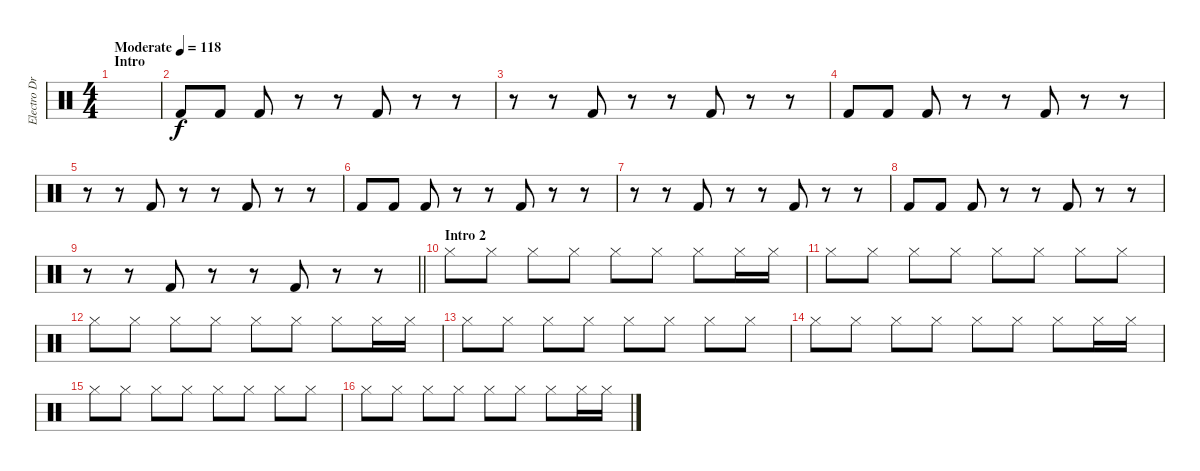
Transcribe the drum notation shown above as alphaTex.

\track ("Electro Drums" "Electro Dr") {instrument percussion}
\staff {score}
\articulation defaults
\ts (4 4)
\section ("" "Intro")
\tempo (118 "Moderate")
\clef neutral
\ks c
|
"Kick (hit) 2".8 "Kick (hit) 2".8 "Kick (hit) 2".8 r.8 r.8 "Kick (hit) 2".8 r.8 r.8 |
r.8 r.8 "Kick (hit) 2".8 r.8 r.8 "Kick (hit) 2".8 r.8 r.8 |
"Kick (hit) 2".8 "Kick (hit) 2".8 "Kick (hit) 2".8 r.8 r.8 "Kick (hit) 2".8 r.8 r.8 |
r.8 r.8 "Kick (hit) 2".8 r.8 r.8 "Kick (hit) 2".8 r.8 r.8 |
"Kick (hit) 2".8 "Kick (hit) 2".8 "Kick (hit) 2".8 r.8 r.8 "Kick (hit) 2".8 r.8 r.8 |
r.8 r.8 "Kick (hit) 2".8 r.8 r.8 "Kick (hit) 2".8 r.8 r.8 |
"Kick (hit) 2".8 "Kick (hit) 2".8 "Kick (hit) 2".8 r.8 r.8 "Kick (hit) 2".8 r.8 r.8 |
\barLineRight lightlight
r.8 r.8 "Kick (hit) 2".8 r.8 r.8 "Kick (hit) 2".8 r.8 r.8 |
\section ("" "Intro 2")
"Hi-Hat (closed)".8{volume 4} "Hi-Hat (closed)".8 "Hi-Hat (closed)".8 "Hi-Hat (closed)".8 "Hi-Hat (closed)".8 "Hi-Hat (closed)".8 "Hi-Hat (closed)".8 "Hi-Hat (closed)".16 "Hi-Hat (closed)".16 |
"Hi-Hat (closed)".8 "Hi-Hat (closed)".8 "Hi-Hat (closed)".8 "Hi-Hat (closed)".8 "Hi-Hat (closed)".8 "Hi-Hat (closed)".8 "Hi-Hat (closed)".8 "Hi-Hat (closed)".8 |
"Hi-Hat (closed)".8 "Hi-Hat (closed)".8 "Hi-Hat (closed)".8 "Hi-Hat (closed)".8 "Hi-Hat (closed)".8 "Hi-Hat (closed)".8 "Hi-Hat (closed)".8 "Hi-Hat (closed)".16 "Hi-Hat (closed)".16 |
"Hi-Hat (closed)".8 "Hi-Hat (closed)".8 "Hi-Hat (closed)".8 "Hi-Hat (closed)".8 "Hi-Hat (closed)".8 "Hi-Hat (closed)".8 "Hi-Hat (closed)".8 "Hi-Hat (closed)".8 |
"Hi-Hat (closed)".8 "Hi-Hat (closed)".8 "Hi-Hat (closed)".8 "Hi-Hat (closed)".8 "Hi-Hat (closed)".8 "Hi-Hat (closed)".8 "Hi-Hat (closed)".8 "Hi-Hat (closed)".16 "Hi-Hat (closed)".16 |
"Hi-Hat (closed)".8 "Hi-Hat (closed)".8 "Hi-Hat (closed)".8 "Hi-Hat (closed)".8 "Hi-Hat (closed)".8 "Hi-Hat (closed)".8 "Hi-Hat (closed)".8 "Hi-Hat (closed)".8 |
"Hi-Hat (closed)".8 "Hi-Hat (closed)".8 "Hi-Hat (closed)".8 "Hi-Hat (closed)".8 "Hi-Hat (closed)".8 "Hi-Hat (closed)".8 "Hi-Hat (closed)".8 "Hi-Hat (closed)".16 "Hi-Hat (closed)".16
